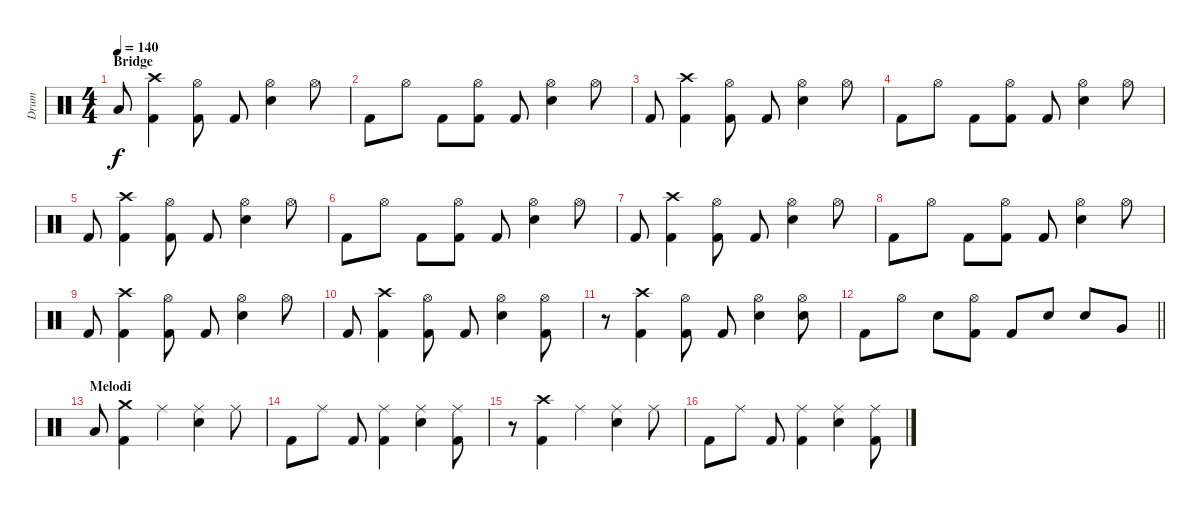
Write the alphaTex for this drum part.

\track ("Drum" "Drum") {instrument percussion}
\staff {score}
\articulation defaults
\ts (4 4)
\section ("" "Bridge")
\tempo 140
\clef neutral
\ks c "Low Floor Tom (hit)".8{dy f}
("Crash high (hit)" "Kick (hit) 2").4 ("Hi-Hat (open)" "Kick (hit) 2").8 "Kick (hit) 2".8 ("Hi-Hat (open)" "Electric Snare (hit)").4 "Hi-Hat (open)".8 |
"Kick (hit) 2".8 "Hi-Hat (open)".8 "Kick (hit) 2".8 ("Hi-Hat (open)" "Kick (hit) 2").8 "Kick (hit) 2".8 ("Hi-Hat (open)" "Electric Snare (hit)").4 "Hi-Hat (open)".8 |
"Kick (hit) 2".8 ("Crash high (hit)" "Kick (hit) 2").4 ("Hi-Hat (open)" "Kick (hit) 2").8 "Kick (hit) 2".8 ("Hi-Hat (open)" "Electric Snare (hit)").4 "Hi-Hat (open)".8 |
"Kick (hit) 2".8 "Hi-Hat (open)".8 "Kick (hit) 2".8 ("Hi-Hat (open)" "Kick (hit) 2").8 "Kick (hit) 2".8 ("Hi-Hat (open)" "Electric Snare (hit)").4 "Hi-Hat (open)".8 |
"Kick (hit) 2".8 ("Crash high (hit)" "Kick (hit) 2").4 ("Hi-Hat (open)" "Kick (hit) 2").8 "Kick (hit) 2".8 ("Hi-Hat (open)" "Electric Snare (hit)").4 "Hi-Hat (open)".8 |
"Kick (hit) 2".8 "Hi-Hat (open)".8 "Kick (hit) 2".8 ("Hi-Hat (open)" "Kick (hit) 2").8 "Kick (hit) 2".8 ("Hi-Hat (open)" "Electric Snare (hit)").4 "Hi-Hat (open)".8 |
"Kick (hit) 2".8 ("Crash high (hit)" "Kick (hit) 2").4 ("Hi-Hat (open)" "Kick (hit) 2").8 "Kick (hit) 2".8 ("Hi-Hat (open)" "Electric Snare (hit)").4 "Hi-Hat (open)".8 |
"Kick (hit) 2".8 "Hi-Hat (open)".8 "Kick (hit) 2".8 ("Hi-Hat (open)" "Kick (hit) 2").8 "Kick (hit) 2".8 ("Hi-Hat (open)" "Electric Snare (hit)").4 "Hi-Hat (open)".8 |
"Kick (hit) 2".8 ("Crash high (hit)" "Kick (hit) 2").4 ("Hi-Hat (open)" "Kick (hit) 2").8 "Kick (hit) 2".8 ("Hi-Hat (open)" "Electric Snare (hit)").4 "Hi-Hat (open)".8 |
"Kick (hit) 2".8 ("Crash high (hit)" "Kick (hit) 2").4 ("Hi-Hat (open)" "Kick (hit) 2").8 "Kick (hit) 2".8 ("Hi-Hat (open)" "Electric Snare (hit)").4 ("Kick (hit) 2" "Hi-Hat (open)").8 |
r.8 ("Crash high (hit)" "Kick (hit) 2").4 ("Hi-Hat (open)" "Kick (hit) 2").8 "Kick (hit) 2".8 ("Hi-Hat (open)" "Electric Snare (hit)").4 ("Electric Snare (hit)" "Hi-Hat (open)").8 |
\barLineRight lightlight "Kick (hit) 2".8 "Hi-Hat (open)".8 "Electric Snare (hit)".8
("Hi-Hat (open)" "Kick (hit) 2").8 "Kick (hit) 2".8 "Electric Snare (hit)".8 "Electric Snare (hit)".8 "Very Low Tom (hit)".8 |
\section ("" "Melodi")
"Low Floor Tom (hit)".8 ("Kick (hit) 2" "Crash medium (hit)").4 "Ride (middle)".4 ("Ride (middle)" "Electric Snare (hit)").4 "Ride (middle)".8 |
"Kick (hit) 2".8 "Ride (middle)".8 "Kick (hit) 2".8 ("Ride (middle)" "Kick (hit) 2").4 ("Electric Snare (hit)" "Ride (middle)").4 ("Ride (middle)" "Kick (hit) 2").8 |
r.8 ("Crash high (hit)" "Kick (hit) 2").4 "Ride (middle)".4 ("Electric Snare (hit)" "Ride (middle)").4 "Ride (middle)".8 |
"Kick (hit) 2".8 "Ride (middle)".8 "Kick (hit) 2".8 ("Ride (middle)" "Kick (hit) 2").4 ("Electric Snare (hit)" "Ride (middle)").4 ("Ride (middle)" "Kick (hit) 2").8
